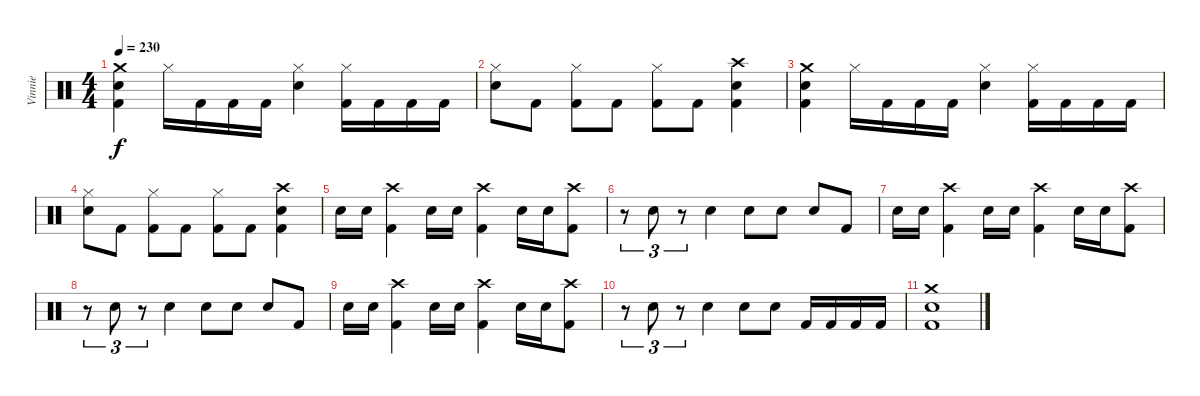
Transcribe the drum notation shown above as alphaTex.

\track ("Vinnie" "Vinnie") {instrument percussion}
\staff {score}
\articulation defaults
\ts (4 4)
\tempo 230
\clef neutral
\ks c
("Crash medium (hit)" "Electric Snare (hit)" "Kick (hit) 2").4{dy f} "Hi-Hat (closed)".16 "Kick (hit) 2".16 "Kick (hit) 2".16 "Kick (hit) 2".16 ("Hi-Hat (closed)" "Electric Snare (hit)").4 ("Hi-Hat (closed)" "Kick (hit) 2").16 "Kick (hit) 2".16 "Kick (hit) 2".16 "Kick (hit) 2".16 |
("Hi-Hat (closed)" "Electric Snare (hit)").8 "Kick (hit) 2".8 ("Hi-Hat (closed)" "Kick (hit) 2").8 "Kick (hit) 2".8 ("Hi-Hat (closed)" "Kick (hit) 2").8 "Kick (hit) 2".8 ("Crash high (hit)" "Electric Snare (hit)" "Kick (hit) 2").4 |
("Crash medium (hit)" "Electric Snare (hit)" "Kick (hit) 2").4 "Hi-Hat (closed)".16 "Kick (hit) 2".16 "Kick (hit) 2".16 "Kick (hit) 2".16 ("Hi-Hat (closed)" "Electric Snare (hit)").4 ("Hi-Hat (closed)" "Kick (hit) 2").16 "Kick (hit) 2".16 "Kick (hit) 2".16 "Kick (hit) 2".16 |
("Hi-Hat (closed)" "Electric Snare (hit)").8 "Kick (hit) 2".8 ("Hi-Hat (closed)" "Kick (hit) 2").8 "Kick (hit) 2".8 ("Hi-Hat (closed)" "Kick (hit) 2").8 "Kick (hit) 2".8 ("Crash high (hit)" "Electric Snare (hit)" "Kick (hit) 2").4 |
"Electric Snare (hit)".16 "Electric Snare (hit)".16 ("Crash high (hit)" "Kick (hit) 2").4 "Electric Snare (hit)".16 "Electric Snare (hit)".16 ("Crash high (hit)" "Kick (hit) 2").4 "Electric Snare (hit)".16 "Electric Snare (hit)".16 ("Crash high (hit)" "Kick (hit) 2").8 |
r.8{tu (3 2)} "Electric Snare (hit)".8{tu (3 2)} r.8{tu (3 2)} "Electric Snare (hit)".4 "Electric Snare (hit)".8 "Electric Snare (hit)".8 "Electric Snare (hit)".8 "Kick (hit) 2".8 |
"Electric Snare (hit)".16 "Electric Snare (hit)".16 ("Crash high (hit)" "Kick (hit) 2").4 "Electric Snare (hit)".16 "Electric Snare (hit)".16 ("Crash high (hit)" "Kick (hit) 2").4 "Electric Snare (hit)".16 "Electric Snare (hit)".16 ("Crash high (hit)" "Kick (hit) 2").8 |
r.8{tu (3 2)} "Electric Snare (hit)".8{tu (3 2)} r.8{tu (3 2)} "Electric Snare (hit)".4 "Electric Snare (hit)".8 "Electric Snare (hit)".8 "Electric Snare (hit)".8 "Kick (hit) 2".8 |
"Electric Snare (hit)".16 "Electric Snare (hit)".16 ("Crash high (hit)" "Kick (hit) 2").4 "Electric Snare (hit)".16 "Electric Snare (hit)".16 ("Crash high (hit)" "Kick (hit) 2").4 "Electric Snare (hit)".16 "Electric Snare (hit)".16 ("Crash high (hit)" "Kick (hit) 2").8 |
r.8{tu (3 2)} "Electric Snare (hit)".8{tu (3 2)} r.8{tu (3 2)} "Electric Snare (hit)".4 "Electric Snare (hit)".8 "Electric Snare (hit)".8 "Kick (hit) 2".16 "Kick (hit) 2".16 "Kick (hit) 2".16 "Kick (hit) 2".16 |
("Crash medium (hit)" "Electric Snare (hit)" "Kick (hit) 2").1
